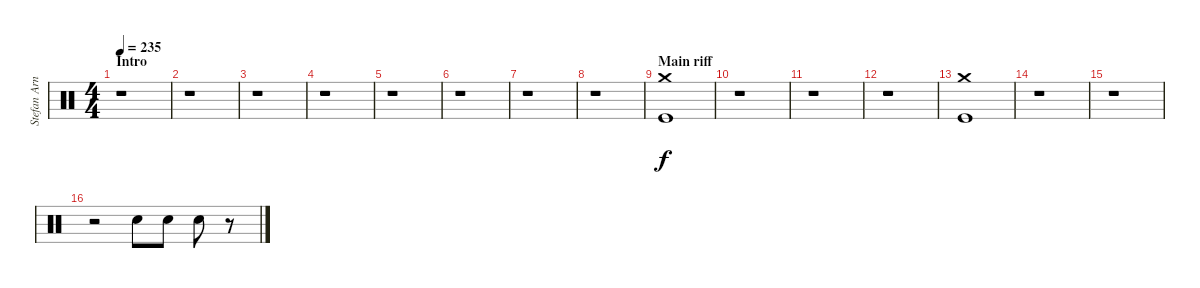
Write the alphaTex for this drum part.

\track ("Stefan Arnold" "Stefan Arn") {instrument percussion}
\staff {score}
\articulation defaults
\ts (4 4)
\section ("" "Intro")
\tempo 235
\clef neutral
\ks c
r.1{dy f} |
r.1 |
r.1 |
r.1 |
r.1 |
r.1 |
r.1 |
r.1 |
\section ("" "Main riff")
("Kick (hit)" "Crash medium (hit)").1 |
r.1 |
r.1 |
r.1 |
("Kick (hit)" "Crash medium (hit)").1 |
r.1 |
r.1 |
r.2 "Electric Snare (hit)".8 "Electric Snare (hit)".8 "Electric Snare (hit)".8 r.8
